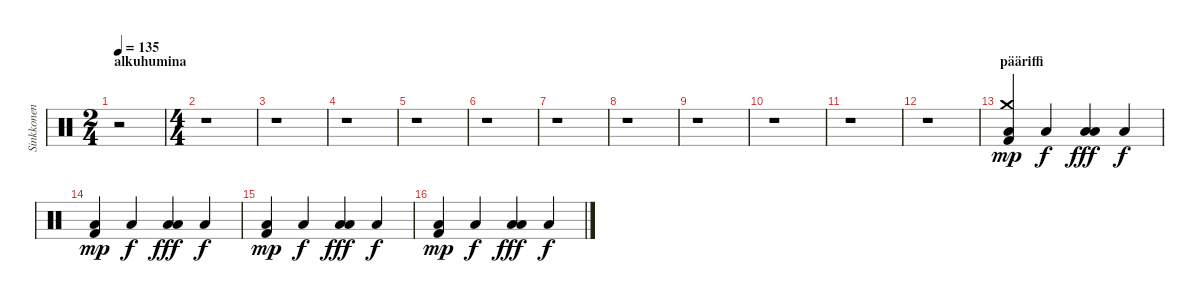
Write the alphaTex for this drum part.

\track ("Sinkkonen" "Sinkkonen") {instrument percussion}
\staff {score}
\articulation defaults
\ts (2 4)
\section ("" "alkuhumina")
\tempo 135
\clef neutral
\ks c
r.2{dy mp} |
\ts (4 4)
r.1 |
r.1 |
r.1 |
r.1 |
r.1 |
r.1 |
r.1 |
r.1 |
r.1 |
r.1 |
r.1 |
\section ("" "pääriffi")
("Kick (hit) 2" "Crash medium (hit)" "Low Floor Tom (hit)").4 "Low Floor Tom (hit)".4{dy f} ("Low Floor Tom (hit)" "Low Floor Tom (hit)").4{dy fff} "Low Floor Tom (hit)".4{dy f} |
("Kick (hit) 2" "Low Floor Tom (hit)").4{dy mp} "Low Floor Tom (hit)".4{dy f} ("Low Floor Tom (hit)" "Low Floor Tom (hit)").4{dy fff} "Low Floor Tom (hit)".4{dy f} |
("Kick (hit) 2" "Low Floor Tom (hit)").4{dy mp} "Low Floor Tom (hit)".4{dy f} ("Low Floor Tom (hit)" "Low Floor Tom (hit)").4{dy fff} "Low Floor Tom (hit)".4{dy f} |
("Kick (hit) 2" "Low Floor Tom (hit)").4{dy mp} "Low Floor Tom (hit)".4{dy f} ("Low Floor Tom (hit)" "Low Floor Tom (hit)").4{dy fff} "Low Floor Tom (hit)".4{dy f}
